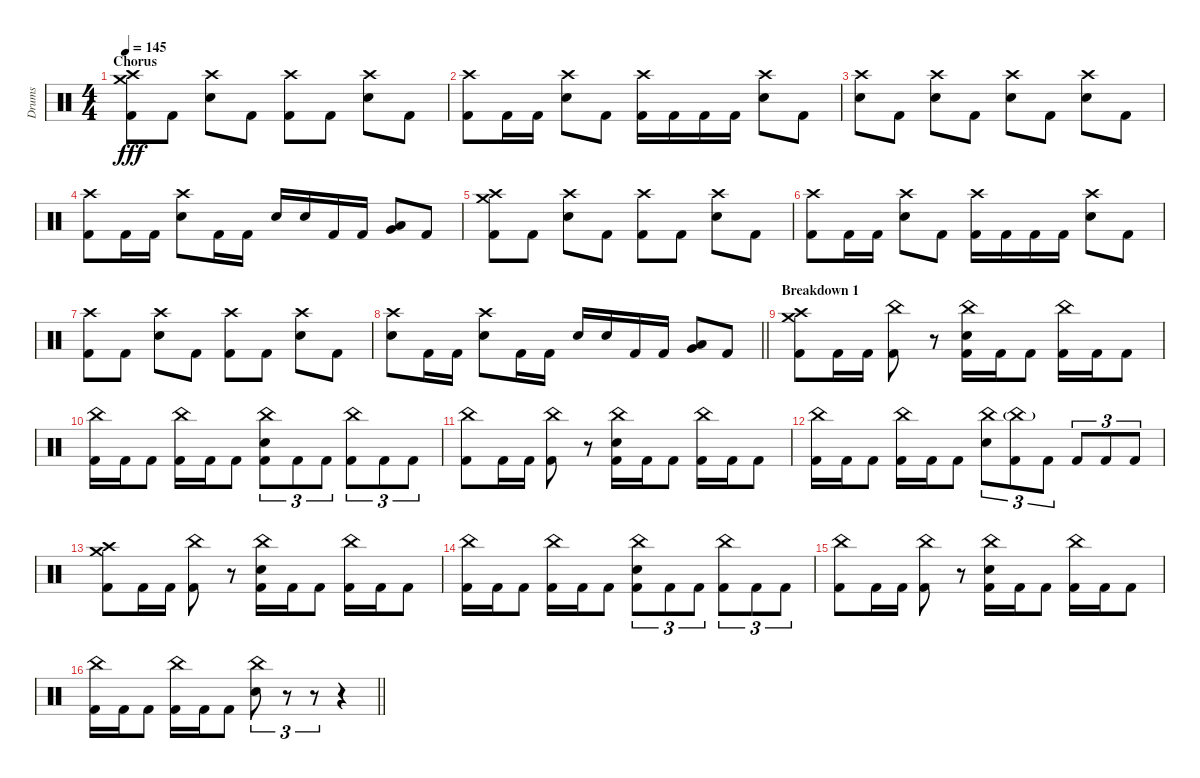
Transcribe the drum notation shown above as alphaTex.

\track ("Drums" "Drums") {instrument percussion}
\staff {score}
\articulation defaults
\ts (4 4)
\section ("" "Chorus")
\tempo 145
\clef neutral
\ks c
("Crash medium (hit)" "Crash high (hit)" "Kick (hit) 2").8{dy fff} "Kick (hit) 2".8 ("Crash high (hit)" "Electric Snare (hit)").8 "Kick (hit) 2".8 ("Crash high (hit)" "Kick (hit) 2").8 "Kick (hit) 2".8 ("Crash high (hit)" "Electric Snare (hit)").8 "Kick (hit) 2".8 |
("Crash high (hit)" "Kick (hit) 2").8 "Kick (hit) 2".16 "Kick (hit) 2".16 ("Crash high (hit)" "Electric Snare (hit)").8 "Kick (hit) 2".8 ("Crash high (hit)" "Kick (hit) 2").16 "Kick (hit) 2".16 "Kick (hit) 2".16 "Kick (hit) 2".16 ("Crash high (hit)" "Electric Snare (hit)").8 "Kick (hit) 2".8 |
("Crash high (hit)" "Electric Snare (hit)").8 "Kick (hit) 2".8 ("Crash high (hit)" "Electric Snare (hit)").8 "Kick (hit) 2".8 ("Crash high (hit)" "Electric Snare (hit)").8 "Kick (hit) 2".8 ("Crash high (hit)" "Electric Snare (hit)").8 "Kick (hit) 2".8 |
("Crash high (hit)" "Kick (hit) 2").8 "Kick (hit) 2".16 "Kick (hit) 2".16 ("Crash high (hit)" "Electric Snare (hit)").8 "Kick (hit) 2".16 "Kick (hit) 2".16 "Electric Snare (hit)".16 "Electric Snare (hit)".16 "Kick (hit) 2".16 "Kick (hit) 2".16 ("Very Low Tom (hit)" "Low Floor Tom (hit)").8 "Kick (hit) 2".8 |
("Crash medium (hit)" "Crash high (hit)" "Kick (hit) 2").8 "Kick (hit) 2".8 ("Crash high (hit)" "Electric Snare (hit)").8 "Kick (hit) 2".8 ("Crash high (hit)" "Kick (hit) 2").8 "Kick (hit) 2".8 ("Crash high (hit)" "Electric Snare (hit)").8 "Kick (hit) 2".8 |
("Crash high (hit)" "Kick (hit) 2").8 "Kick (hit) 2".16 "Kick (hit) 2".16 ("Crash high (hit)" "Electric Snare (hit)").8 "Kick (hit) 2".8 ("Crash high (hit)" "Kick (hit) 2").16 "Kick (hit) 2".16 "Kick (hit) 2".16 "Kick (hit) 2".16 ("Crash high (hit)" "Electric Snare (hit)").8 "Kick (hit) 2".8 |
("Crash high (hit)" "Kick (hit) 2").8 "Kick (hit) 2".8 ("Crash high (hit)" "Electric Snare (hit)").8 "Kick (hit) 2".8 ("Crash high (hit)" "Kick (hit) 2").8 "Kick (hit) 2".8 ("Crash high (hit)" "Electric Snare (hit)").8 "Kick (hit) 2".8 |
\barLineRight lightlight
("Crash high (hit)" "Electric Snare (hit)").8 "Kick (hit) 2".16 "Kick (hit) 2".16 ("Crash high (hit)" "Electric Snare (hit)").8 "Kick (hit) 2".16 "Kick (hit) 2".16 "Electric Snare (hit)".16 "Electric Snare (hit)".16 "Kick (hit) 2".16 "Kick (hit) 2".16 ("Very Low Tom (hit)" "Low Floor Tom (hit)").8 "Kick (hit) 2".8 |
\section ("" "Breakdown 1")
("Crash medium (hit)" "Crash high (hit)" "Kick (hit) 2").8 "Kick (hit) 2".16 "Kick (hit) 2".16 ("China (hit)" "Kick (hit) 2").8 r.8 ("China (hit)" "Electric Snare (hit)" "Kick (hit) 2").16 "Kick (hit) 2".16 "Kick (hit) 2".8 ("China (hit)" "Kick (hit) 2").16 "Kick (hit) 2".16 "Kick (hit) 2".8 |
("China (hit)" "Kick (hit) 2").16 "Kick (hit) 2".16 "Kick (hit) 2".8 ("China (hit)" "Kick (hit) 2").16 "Kick (hit) 2".16 "Kick (hit) 2".8 ("China (hit)" "Electric Snare (hit)" "Kick (hit) 2").8{tu (3 2)} "Kick (hit) 2".8{tu (3 2)} "Kick (hit) 2".8{tu (3 2)} ("China (hit)" "Kick (hit) 2").8{tu (3 2)} "Kick (hit) 2".8{tu (3 2)} "Kick (hit) 2".8{tu (3 2)} |
("China (hit)" "Kick (hit) 2").8 "Kick (hit) 2".16 "Kick (hit) 2".16 ("China (hit)" "Kick (hit) 2").8 r.8 ("China (hit)" "Electric Snare (hit)" "Kick (hit) 2").16 "Kick (hit) 2".16 "Kick (hit) 2".8 ("China (hit)" "Kick (hit) 2").16 "Kick (hit) 2".16 "Kick (hit) 2".8 |
("China (hit)" "Kick (hit) 2").16 "Kick (hit) 2".16 "Kick (hit) 2".8 ("China (hit)" "Kick (hit) 2").16 "Kick (hit) 2".16 "Kick (hit) 2".8 ("China (hit)" "Electric Snare (hit)").8{tu (3 2)} ("China (hit)"{g} "Kick (hit) 2").8{tu (3 2)} "Kick (hit) 2".8{tu (3 2)} "Kick (hit) 2".8{tu (3 2)} "Kick (hit) 2".8{tu (3 2)} "Kick (hit) 2".8{tu (3 2)} |
("Crash medium (hit)" "Crash high (hit)" "Kick (hit) 2").8 "Kick (hit) 2".16 "Kick (hit) 2".16 ("China (hit)" "Kick (hit) 2").8 r.8 ("China (hit)" "Electric Snare (hit)" "Kick (hit) 2").16 "Kick (hit) 2".16 "Kick (hit) 2".8 ("China (hit)" "Kick (hit) 2").16 "Kick (hit) 2".16 "Kick (hit) 2".8 |
("China (hit)" "Kick (hit) 2").16 "Kick (hit) 2".16 "Kick (hit) 2".8 ("China (hit)" "Kick (hit) 2").16 "Kick (hit) 2".16 "Kick (hit) 2".8 ("China (hit)" "Electric Snare (hit)" "Kick (hit) 2").8{tu (3 2)} "Kick (hit) 2".8{tu (3 2)} "Kick (hit) 2".8{tu (3 2)} ("China (hit)" "Kick (hit) 2").8{tu (3 2)} "Kick (hit) 2".8{tu (3 2)} "Kick (hit) 2".8{tu (3 2)} |
("China (hit)" "Kick (hit) 2").8 "Kick (hit) 2".16 "Kick (hit) 2".16 ("China (hit)" "Kick (hit) 2").8 r.8 ("China (hit)" "Electric Snare (hit)" "Kick (hit) 2").16 "Kick (hit) 2".16 "Kick (hit) 2".8 ("China (hit)" "Kick (hit) 2").16 "Kick (hit) 2".16 "Kick (hit) 2".8 |
\barLineRight lightlight
("China (hit)" "Kick (hit) 2").16 "Kick (hit) 2".16 "Kick (hit) 2".8 ("China (hit)" "Kick (hit) 2").16 "Kick (hit) 2".16 "Kick (hit) 2".8 ("China (hit)" "Electric Snare (hit)").8{tu (3 2)} r.8{tu (3 2)} r.8{tu (3 2)} r.4
